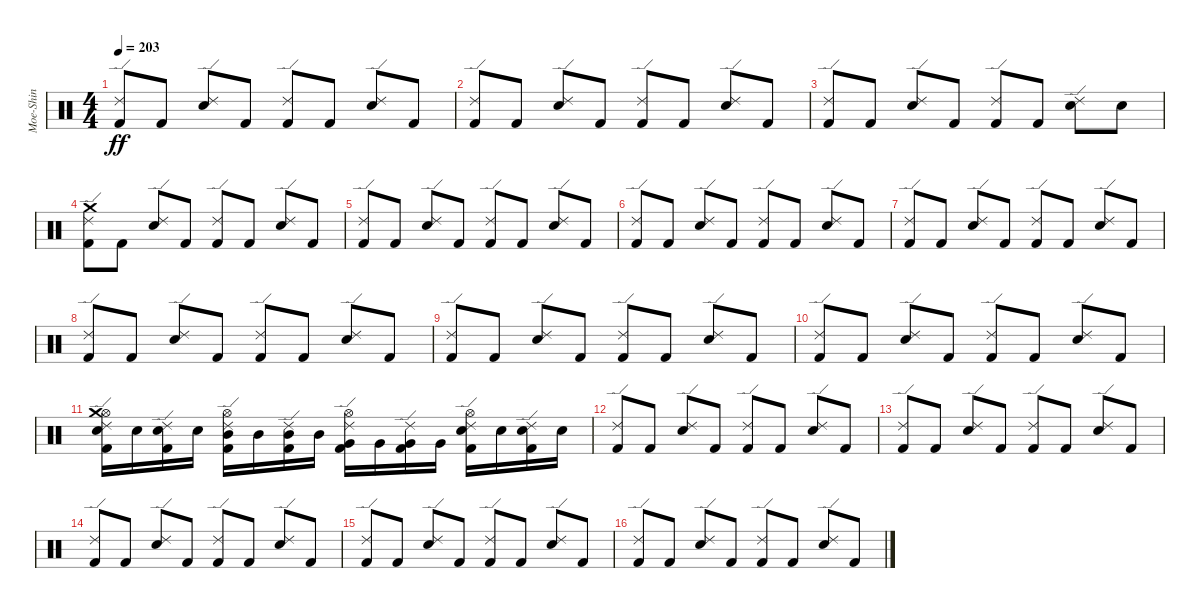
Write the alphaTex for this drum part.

\track ("Moe-Shin" "Moe-Shin") {instrument percussion}
\staff {score}
\articulation defaults
\ts (4 4)
\tempo 203
\clef neutral
\ks c
("Ride (edge) 2" "Kick (hit) 2").8{dy ff} "Kick (hit) 2".8 ("Ride (edge) 2" "Snare (hit) 2").8 "Kick (hit) 2".8 ("Ride (edge) 2" "Kick (hit) 2").8 "Kick (hit) 2".8 ("Snare (hit) 2" "Ride (edge) 2").8 "Kick (hit) 2".8 |
("Ride (edge) 2" "Kick (hit) 2").8 "Kick (hit) 2".8 ("Ride (edge) 2" "Snare (hit) 2").8 "Kick (hit) 2".8 ("Kick (hit) 2" "Ride (edge) 2").8 "Kick (hit) 2".8 ("Snare (hit) 2" "Ride (edge) 2").8 "Kick (hit) 2".8 |
("Ride (edge) 2" "Kick (hit) 2").8 "Kick (hit) 2".8 ("Snare (hit) 2" "Ride (edge) 2").8 "Kick (hit) 2".8 ("Ride (edge) 2" "Kick (hit) 2").8 "Kick (hit) 2".8 ("Snare (hit) 2" "Ride (edge) 2").8 "Snare (hit) 2".8 |
("Ride (edge) 2" "Crash medium (hit)" "Kick (hit) 2").8 "Kick (hit) 2".8 ("Ride (edge) 2" "Snare (hit) 2").8 "Kick (hit) 2".8 ("Ride (edge) 2" "Kick (hit) 2").8 "Kick (hit) 2".8 ("Snare (hit) 2" "Ride (edge) 2").8 "Kick (hit) 2".8 |
("Ride (edge) 2" "Kick (hit) 2").8 "Kick (hit) 2".8 ("Ride (edge) 2" "Snare (hit) 2").8 "Kick (hit) 2".8 ("Ride (edge) 2" "Kick (hit) 2").8 "Kick (hit) 2".8 ("Snare (hit) 2" "Ride (edge) 2").8 "Kick (hit) 2".8 |
("Ride (edge) 2" "Kick (hit) 2").8 "Kick (hit) 2".8 ("Snare (hit) 2" "Ride (edge) 2").8 "Kick (hit) 2".8 ("Kick (hit) 2" "Ride (edge) 2").8 "Kick (hit) 2".8 ("Ride (edge) 2" "Snare (hit) 2").8 "Kick (hit) 2".8 |
("Ride (edge) 2" "Kick (hit) 2").8 "Kick (hit) 2".8 ("Ride (edge) 2" "Snare (hit) 2").8 "Kick (hit) 2".8 ("Kick (hit) 2" "Ride (edge) 2").8 "Kick (hit) 2".8 ("Ride (edge) 2" "Snare (hit) 2").8 "Kick (hit) 2".8 |
("Kick (hit) 2" "Ride (edge) 2").8 "Kick (hit) 2".8 ("Ride (edge) 2" "Snare (hit) 2").8 "Kick (hit) 2".8 ("Kick (hit) 2" "Ride (edge) 2").8 "Kick (hit) 2".8 ("Snare (hit) 2" "Ride (edge) 2").8 "Kick (hit) 2".8 |
("Ride (edge) 2" "Kick (hit) 2").8 "Kick (hit) 2".8 ("Snare (hit) 2" "Ride (edge) 2").8 "Kick (hit) 2".8 ("Kick (hit) 2" "Ride (edge) 2").8 "Kick (hit) 2".8 ("Ride (edge) 2" "Snare (hit) 2").8 "Kick (hit) 2".8 |
("Ride (edge) 2" "Kick (hit) 2").8 "Kick (hit) 2".8 ("Snare (hit) 2" "Ride (edge) 2").8 "Kick (hit) 2".8 ("Ride (edge) 2" "Kick (hit) 2").8 "Kick (hit) 2".8 ("Snare (hit) 2" "Ride (edge) 2").8 "Kick (hit) 2".8 |
("Snare (hit) 2" "Hi-Hat (open)" "Ride (edge) 2" "Kick (hit) 2" "Crash medium (hit)").16 "Snare (hit) 2".16 ("Snare (hit) 2" "Kick (hit) 2" "Ride (edge) 2").16 "Snare (hit) 2".16 ("Kick (hit) 2" "Hi-Hat (open)" "Ride (edge) 2" "Mid Tom (hit)").16 "Mid Tom (hit)".16 ("Kick (hit) 2" "Mid Tom (hit)" "Ride (edge) 2").16 "Mid Tom (hit)".16 ("Hi-Hat (open)" "Kick (hit) 2" "Ride (edge) 2" "Very Low Tom (hit)").16 "Very Low Tom (hit)".16 ("Very Low Tom (hit)" "Ride (edge) 2" "Kick (hit) 2").16 "Very Low Tom (hit)".16 ("Snare (hit) 2" "Ride (edge) 2" "Kick (hit) 2" "Hi-Hat (open)").16 "Snare (hit) 2".16 ("Kick (hit) 2" "Snare (hit) 2" "Ride (edge) 2").16 "Snare (hit) 2".16 |
("Kick (hit) 2" "Ride (edge) 2").8 "Kick (hit) 2".8 ("Snare (hit) 2" "Ride (edge) 2").8 "Kick (hit) 2".8 ("Kick (hit) 2" "Ride (edge) 2").8 "Kick (hit) 2".8 ("Snare (hit) 2" "Ride (edge) 2").8 "Kick (hit) 2".8 |
("Kick (hit) 2" "Ride (edge) 2").8 "Kick (hit) 2".8 ("Ride (edge) 2" "Snare (hit) 2").8 "Kick (hit) 2".8 ("Ride (edge) 2" "Kick (hit) 2").8 "Kick (hit) 2".8 ("Ride (edge) 2" "Snare (hit) 2").8 "Kick (hit) 2".8 |
("Ride (edge) 2" "Kick (hit) 2").8 "Kick (hit) 2".8 ("Ride (edge) 2" "Snare (hit) 2").8 "Kick (hit) 2".8 ("Kick (hit) 2" "Ride (edge) 2").8 "Kick (hit) 2".8 ("Ride (edge) 2" "Snare (hit) 2").8 "Kick (hit) 2".8 |
("Kick (hit) 2" "Ride (edge) 2").8 "Kick (hit) 2".8 ("Snare (hit) 2" "Ride (edge) 2").8 "Kick (hit) 2".8 ("Kick (hit) 2" "Ride (edge) 2").8 "Kick (hit) 2".8 ("Ride (edge) 2" "Snare (hit) 2").8 "Kick (hit) 2".8 |
("Ride (edge) 2" "Kick (hit) 2").8 "Kick (hit) 2".8 ("Ride (edge) 2" "Snare (hit) 2").8 "Kick (hit) 2".8 ("Ride (edge) 2" "Kick (hit) 2").8 "Kick (hit) 2".8 ("Ride (edge) 2" "Snare (hit) 2").8 "Kick (hit) 2".8
